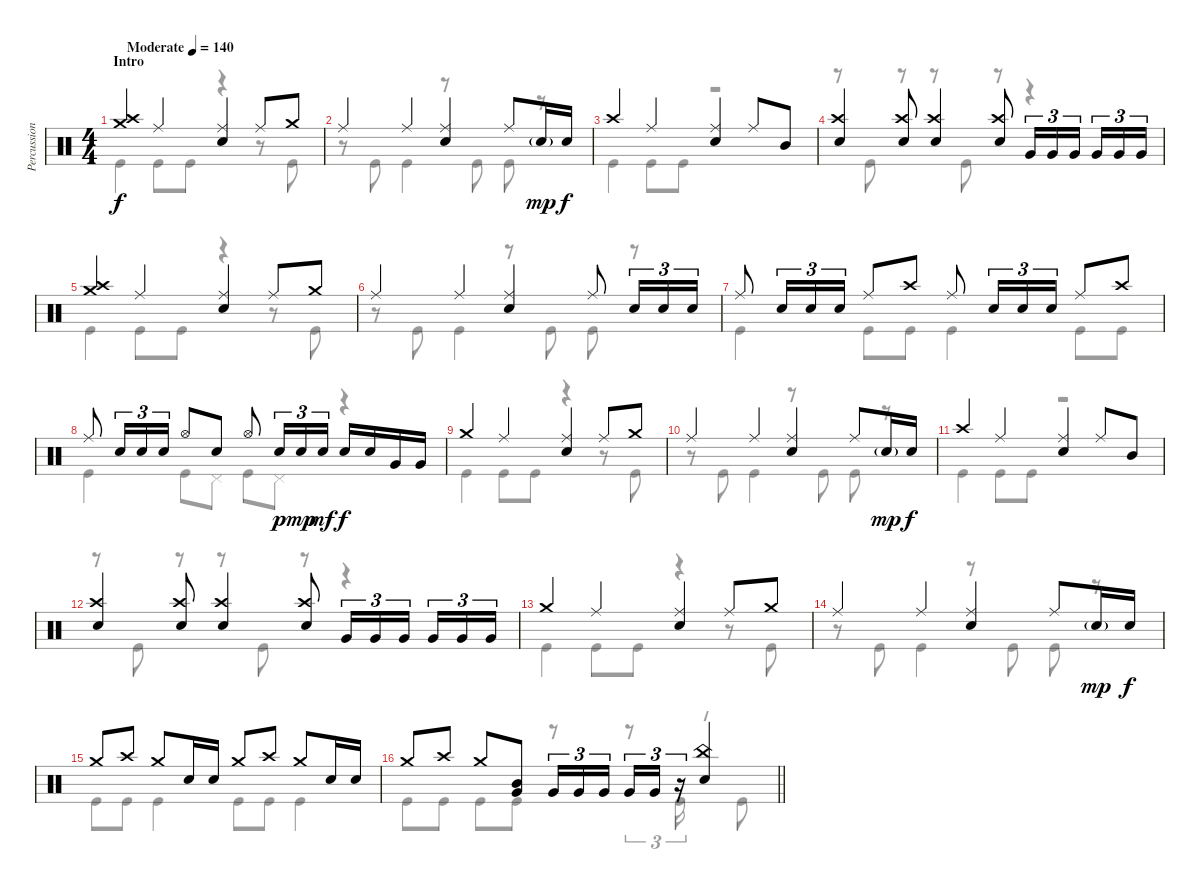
\track ("Percussion" "Percussion") {instrument percussion}
\staff {score}
\articulation defaults
\voice
\ts (4 4)
\section ("" "Intro")
\tempo (140 "Moderate")
\clef neutral
\ks c
("Crash medium (hit)" "Crash high (hit)").4{dy f} "Ride (middle)".4 ("Ride (middle)" "Electric Snare (hit)").4 "Ride (middle)".8 "Crash medium (hit)".8 |
"Ride (middle)".4 "Ride (middle)".4 ("Ride (middle)" "Electric Snare (hit)").4 "Ride (middle)".8 "Electric Snare (hit)"{g}.16{dy mp} "Electric Snare (hit)".16{dy f} |
"Crash high (hit)".4 "Ride (middle)".4 ("Ride (middle)" "Electric Snare (hit)").4 "Ride (middle)".8 "Mid Tom (hit)".8 |
("Crash high (hit)" "Electric Snare (hit)").4 ("Crash high (hit)" "Electric Snare (hit)").8 ("Crash high (hit)" "Electric Snare (hit)").4 ("Crash high (hit)" "Electric Snare (hit)").8 "Very Low Tom (hit)".16{tu (3 2)} "Very Low Tom (hit)".16{tu (3 2)} "Very Low Tom (hit)".16{tu (3 2) beam splitsecondary} "Very Low Tom (hit)".16{tu (3 2)} "Very Low Tom (hit)".16{tu (3 2)} "Very Low Tom (hit)".16{tu (3 2)} |
("Crash medium (hit)" "Crash high (hit)").4 "Ride (middle)".4 ("Ride (middle)" "Electric Snare (hit)").4 "Ride (middle)".8 "Crash medium (hit)".8 |
"Ride (middle)".4 "Ride (middle)".4 ("Ride (middle)" "Electric Snare (hit)").4 "Ride (middle)".8 "Electric Snare (hit)".16{tu (3 2)} "Electric Snare (hit)".16{tu (3 2)} "Electric Snare (hit)".16{tu (3 2)} |
"Ride (middle)".8 "Electric Snare (hit)".16{tu (3 2)} "Electric Snare (hit)".16{tu (3 2)} "Electric Snare (hit)".16{tu (3 2)} "Ride (middle)".8 "Crash high (hit)".8 "Ride (middle)".8 "Electric Snare (hit)".16{tu (3 2)} "Electric Snare (hit)".16{tu (3 2)} "Electric Snare (hit)".16{tu (3 2)} "Ride (middle)".8 "Crash high (hit)".8 |
"Ride (middle)".8 "Electric Snare (hit)".16{tu (3 2)} "Electric Snare (hit)".16{tu (3 2)} "Electric Snare (hit)".16{tu (3 2)} "Hi-Hat (open)".8 "Electric Snare (hit)".8 "Hi-Hat (open)".8 "Electric Snare (hit)".16{tu (3 2) dy p} "Electric Snare (hit)".16{tu (3 2) dy mp} "Electric Snare (hit)".16{tu (3 2) dy mf} "Electric Snare (hit)".16{dy f} "Electric Snare (hit)".16 "Very Low Tom (hit)".16 "Very Low Tom (hit)".16 |
"Crash medium (hit)".4 "Ride (middle)".4 ("Ride (middle)" "Electric Snare (hit)").4 "Ride (middle)".8 "Crash medium (hit)".8 |
"Ride (middle)".4 "Ride (middle)".4 ("Ride (middle)" "Electric Snare (hit)").4 "Ride (middle)".8 "Electric Snare (hit)"{g}.16{dy mp} "Electric Snare (hit)".16{dy f} |
"Crash high (hit)".4 "Ride (middle)".4 ("Ride (middle)" "Electric Snare (hit)").4 "Ride (middle)".8 "Mid Tom (hit)".8 |
("Crash high (hit)" "Electric Snare (hit)").4 ("Crash high (hit)" "Electric Snare (hit)").8 ("Crash high (hit)" "Electric Snare (hit)").4 ("Crash high (hit)" "Electric Snare (hit)").8 "Very Low Tom (hit)".16{tu (3 2)} "Very Low Tom (hit)".16{tu (3 2)} "Very Low Tom (hit)".16{tu (3 2) beam splitsecondary} "Very Low Tom (hit)".16{tu (3 2)} "Very Low Tom (hit)".16{tu (3 2)} "Very Low Tom (hit)".16{tu (3 2)} |
"Crash medium (hit)".4 "Ride (middle)".4 ("Ride (middle)" "Electric Snare (hit)").4 "Ride (middle)".8 "Crash medium (hit)".8 |
"Ride (middle)".4 "Ride (middle)".4 ("Ride (middle)" "Electric Snare (hit)").4 "Ride (middle)".8 "Electric Snare (hit)"{g}.16{dy mp} "Electric Snare (hit)".16{dy f} |
"Crash medium (hit)".8 "Crash high (hit)".8 "Crash medium (hit)".8 "Electric Snare (hit)".16 "Electric Snare (hit)".16 "Crash medium (hit)".8 "Crash high (hit)".8 "Crash medium (hit)".8 "Electric Snare (hit)".16 "Electric Snare (hit)".16 |
\barLineRight lightlight "Crash medium (hit)".8 "Crash high (hit)".8 "Crash medium (hit)".8
("Mid Tom (hit)" "Very Low Tom (hit)").8 "Very Low Tom (hit)".16{tu (3 2)} "Very Low Tom (hit)".16{tu (3 2)} "Very Low Tom (hit)".16{tu (3 2) beam splitsecondary} "Very Low Tom (hit)".16{tu (3 2)} "Very Low Tom (hit)".16{tu (3 2)} r.16{tu (3 2)} ("China (hit)" "Electric Snare (hit)").4
\voice
\clef neutral
\ottava regular
\simile none
\ks c "Kick (hit)".4{dy f} "Kick (hit)".8 "Kick (hit)".8
r.4 r.8 "Kick (hit)".8 |
r.8 "Kick (hit)".8 "Kick (hit)".4 r.8 "Kick (hit)".8 "Kick (hit)".8 r.8 |
"Kick (hit)".4 "Kick (hit)".8 "Kick (hit)".8 r.2 |
r.8 "Kick (hit)".8 r.8 r.8 "Kick (hit)".8 r.8 r.4 |
"Kick (hit)".4 "Kick (hit)".8 "Kick (hit)".8 r.4 r.8 "Kick (hit)".8 |
r.8 "Kick (hit)".8 "Kick (hit)".4 r.8 "Kick (hit)".8 "Kick (hit)".8 r.8 |
"Kick (hit)".4 "Kick (hit)".8 "Kick (hit)".8 "Kick (hit)".4 "Kick (hit)".8 "Kick (hit)".8 |
"Kick (hit)".4 "Kick (hit)".8 "Pedal Hi-Hat (hit)".8 "Kick (hit)".8 "Pedal Hi-Hat (hit)".8 r.4 |
"Kick (hit)".4 "Kick (hit)".8 "Kick (hit)".8 r.4 r.8 "Kick (hit)".8 |
r.8 "Kick (hit)".8 "Kick (hit)".4 r.8 "Kick (hit)".8 "Kick (hit)".8 r.8 |
"Kick (hit)".4 "Kick (hit)".8 "Kick (hit)".8 r.2 |
r.8 "Kick (hit)".8 r.8 r.8 "Kick (hit)".8 r.8 r.4 |
"Kick (hit)".4 "Kick (hit)".8 "Kick (hit)".8 r.4 r.8 "Kick (hit)".8 |
r.8 "Kick (hit)".8 "Kick (hit)".4 r.8 "Kick (hit)".8 "Kick (hit)".8 r.8 |
"Kick (hit)".8 "Kick (hit)".8 "Kick (hit)".4 "Kick (hit)".8 "Kick (hit)".8 "Kick (hit)".4 |
\barLineRight lightlight "Kick (hit)".8 "Kick (hit)".8 "Kick (hit)".8 "Kick (hit)".8
r.8 r.8{tu (3 2)} "Kick (hit)".16{tu (3 2)} r.8 "Kick (hit)".8
